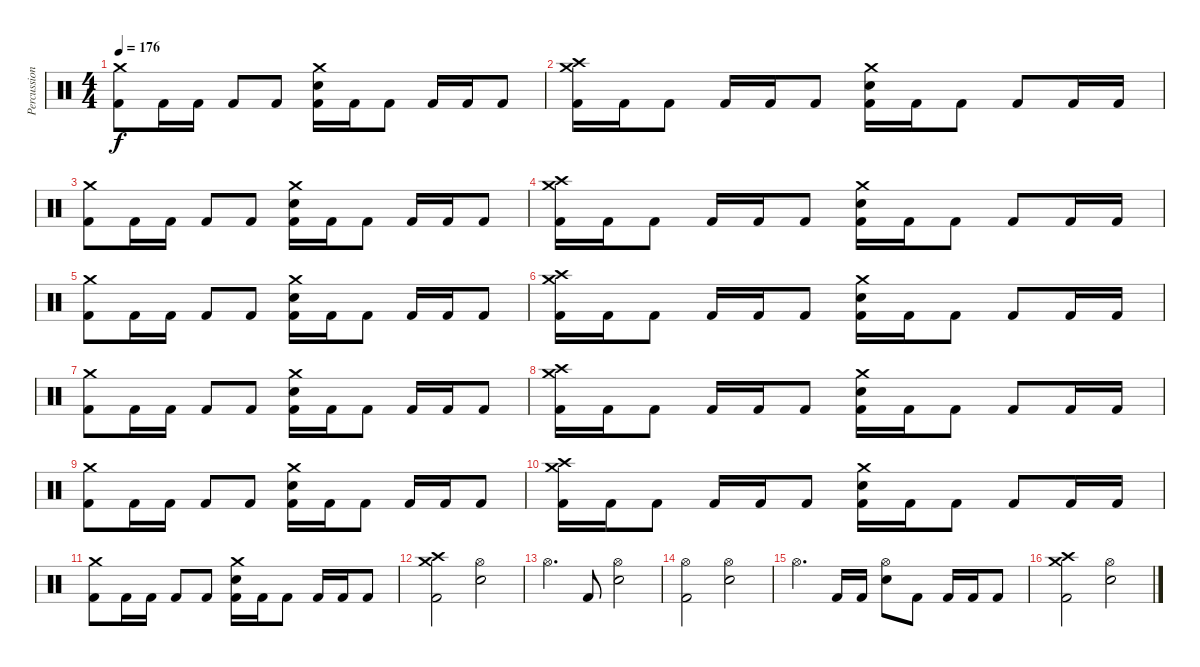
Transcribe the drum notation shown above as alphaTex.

\track ("Percussion" "Percussion") {instrument percussion}
\staff {score}
\articulation defaults
\ts (4 4)
\tempo 176
\clef neutral
\ks c
("Crash medium (hit)" "Kick (hit) 2").8{dy f} "Kick (hit) 2".16 "Kick (hit) 2".16 "Kick (hit) 2".8 "Kick (hit) 2".8 ("Crash medium (hit)" "Snare (hit) 2" "Kick (hit) 2").16 "Kick (hit) 2".16 "Kick (hit) 2".8 "Kick (hit) 2".16 "Kick (hit) 2".16 "Kick (hit) 2".8 |
("Crash high (hit)" "Crash medium (hit)" "Kick (hit) 2").16 "Kick (hit) 2".16 "Kick (hit) 2".8 "Kick (hit) 2".16 "Kick (hit) 2".16 "Kick (hit) 2".8 ("Crash medium (hit)" "Snare (hit) 2" "Kick (hit) 2").16 "Kick (hit) 2".16 "Kick (hit) 2".8 "Kick (hit) 2".8 "Kick (hit) 2".16 "Kick (hit) 2".16 |
("Crash medium (hit)" "Kick (hit) 2").8 "Kick (hit) 2".16 "Kick (hit) 2".16 "Kick (hit) 2".8 "Kick (hit) 2".8 ("Crash medium (hit)" "Snare (hit) 2" "Kick (hit) 2").16 "Kick (hit) 2".16 "Kick (hit) 2".8 "Kick (hit) 2".16 "Kick (hit) 2".16 "Kick (hit) 2".8 |
("Crash high (hit)" "Crash medium (hit)" "Kick (hit) 2").16 "Kick (hit) 2".16 "Kick (hit) 2".8 "Kick (hit) 2".16 "Kick (hit) 2".16 "Kick (hit) 2".8 ("Crash medium (hit)" "Snare (hit) 2" "Kick (hit) 2").16 "Kick (hit) 2".16 "Kick (hit) 2".8 "Kick (hit) 2".8 "Kick (hit) 2".16 "Kick (hit) 2".16 |
("Crash medium (hit)" "Kick (hit) 2").8 "Kick (hit) 2".16 "Kick (hit) 2".16 "Kick (hit) 2".8 "Kick (hit) 2".8 ("Crash medium (hit)" "Snare (hit) 2" "Kick (hit) 2").16 "Kick (hit) 2".16 "Kick (hit) 2".8 "Kick (hit) 2".16 "Kick (hit) 2".16 "Kick (hit) 2".8 |
("Crash high (hit)" "Crash medium (hit)" "Kick (hit) 2").16 "Kick (hit) 2".16 "Kick (hit) 2".8 "Kick (hit) 2".16 "Kick (hit) 2".16 "Kick (hit) 2".8 ("Crash medium (hit)" "Snare (hit) 2" "Kick (hit) 2").16 "Kick (hit) 2".16 "Kick (hit) 2".8 "Kick (hit) 2".8 "Kick (hit) 2".16 "Kick (hit) 2".16 |
("Crash medium (hit)" "Kick (hit) 2").8 "Kick (hit) 2".16 "Kick (hit) 2".16 "Kick (hit) 2".8 "Kick (hit) 2".8 ("Crash medium (hit)" "Snare (hit) 2" "Kick (hit) 2").16 "Kick (hit) 2".16 "Kick (hit) 2".8 "Kick (hit) 2".16 "Kick (hit) 2".16 "Kick (hit) 2".8 |
("Crash high (hit)" "Crash medium (hit)" "Kick (hit) 2").16 "Kick (hit) 2".16 "Kick (hit) 2".8 "Kick (hit) 2".16 "Kick (hit) 2".16 "Kick (hit) 2".8 ("Crash medium (hit)" "Snare (hit) 2" "Kick (hit) 2").16 "Kick (hit) 2".16 "Kick (hit) 2".8 "Kick (hit) 2".8 "Kick (hit) 2".16 "Kick (hit) 2".16 |
("Crash medium (hit)" "Kick (hit) 2").8 "Kick (hit) 2".16 "Kick (hit) 2".16 "Kick (hit) 2".8 "Kick (hit) 2".8 ("Crash medium (hit)" "Snare (hit) 2" "Kick (hit) 2").16 "Kick (hit) 2".16 "Kick (hit) 2".8 "Kick (hit) 2".16 "Kick (hit) 2".16 "Kick (hit) 2".8 |
("Crash high (hit)" "Crash medium (hit)" "Kick (hit) 2").16 "Kick (hit) 2".16 "Kick (hit) 2".8 "Kick (hit) 2".16 "Kick (hit) 2".16 "Kick (hit) 2".8 ("Crash medium (hit)" "Snare (hit) 2" "Kick (hit) 2").16 "Kick (hit) 2".16 "Kick (hit) 2".8 "Kick (hit) 2".8 "Kick (hit) 2".16 "Kick (hit) 2".16 |
("Crash medium (hit)" "Kick (hit) 2").8 "Kick (hit) 2".16 "Kick (hit) 2".16 "Kick (hit) 2".8 "Kick (hit) 2".8 ("Crash medium (hit)" "Snare (hit) 2" "Kick (hit) 2").16 "Kick (hit) 2".16 "Kick (hit) 2".8 "Kick (hit) 2".16 "Kick (hit) 2".16 "Kick (hit) 2".8 |
("Crash high (hit)" "Crash medium (hit)" "Kick (hit) 2").2 ("Hi-Hat (open)" "Snare (hit) 2").2 |
"Hi-Hat (open)".4{d} "Kick (hit) 2".8 ("Hi-Hat (open)" "Snare (hit) 2").2 |
("Hi-Hat (open)" "Kick (hit) 2").2 ("Hi-Hat (open)" "Snare (hit) 2").2 |
"Hi-Hat (open)".4{d} "Kick (hit) 2".16 "Kick (hit) 2".16 ("Hi-Hat (open)" "Snare (hit) 2").8 "Kick (hit) 2".8 "Kick (hit) 2".16 "Kick (hit) 2".16 "Kick (hit) 2".8 |
("Crash high (hit)" "Crash medium (hit)" "Kick (hit) 2").2 ("Hi-Hat (open)" "Snare (hit) 2").2
